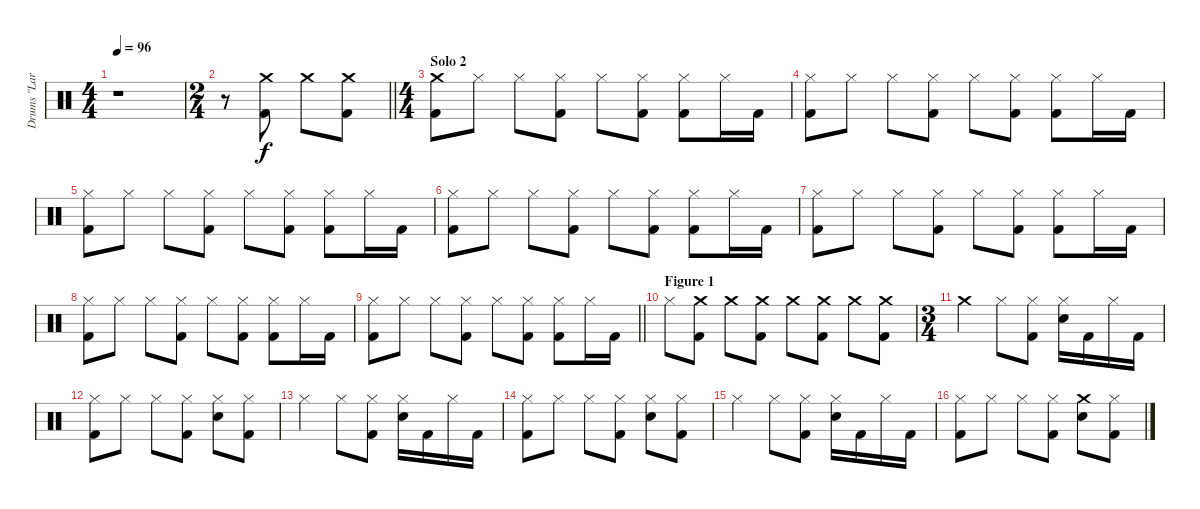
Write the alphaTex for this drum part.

\track ("Drums \"Lars Ulrich\"" "Drums \"Lar") {instrument percussion}
\staff {score}
\articulation defaults
\ts (4 4)
\tempo 96
\clef neutral
\ks c
r.1{dy f} |
\ts (2 4)
\barLineRight lightlight
r.8 ("Crash medium (hit)" "Kick (hit) 2").8 "Crash medium (hit)".8 ("Crash medium (hit)" "Kick (hit) 2").8 |
\ts (4 4)
\section ("" "Solo 2")
("Crash medium (hit)" "Kick (hit) 2").8 "Hi-Hat (closed)".8 "Hi-Hat (closed)".8 ("Hi-Hat (closed)" "Kick (hit) 2").8 "Hi-Hat (closed)".8 ("Hi-Hat (closed)" "Kick (hit) 2").8 ("Hi-Hat (closed)" "Kick (hit) 2").8 "Hi-Hat (closed)".16 "Kick (hit) 2".16 |
("Hi-Hat (closed)" "Kick (hit) 2").8 "Hi-Hat (closed)".8 "Hi-Hat (closed)".8 ("Hi-Hat (closed)" "Kick (hit) 2").8 "Hi-Hat (closed)".8 ("Hi-Hat (closed)" "Kick (hit) 2").8 ("Hi-Hat (closed)" "Kick (hit) 2").8 "Hi-Hat (closed)".16 "Kick (hit) 2".16 |
("Hi-Hat (closed)" "Kick (hit) 2").8 "Hi-Hat (closed)".8 "Hi-Hat (closed)".8 ("Hi-Hat (closed)" "Kick (hit) 2").8 "Hi-Hat (closed)".8 ("Hi-Hat (closed)" "Kick (hit) 2").8 ("Hi-Hat (closed)" "Kick (hit) 2").8 "Hi-Hat (closed)".16 "Kick (hit) 2".16 |
("Hi-Hat (closed)" "Kick (hit) 2").8 "Hi-Hat (closed)".8 "Hi-Hat (closed)".8 ("Hi-Hat (closed)" "Kick (hit) 2").8 "Hi-Hat (closed)".8 ("Hi-Hat (closed)" "Kick (hit) 2").8 ("Hi-Hat (closed)" "Kick (hit) 2").8 "Hi-Hat (closed)".16 "Kick (hit) 2".16 |
("Hi-Hat (closed)" "Kick (hit) 2").8 "Hi-Hat (closed)".8 "Hi-Hat (closed)".8 ("Hi-Hat (closed)" "Kick (hit) 2").8 "Hi-Hat (closed)".8 ("Hi-Hat (closed)" "Kick (hit) 2").8 ("Hi-Hat (closed)" "Kick (hit) 2").8 "Hi-Hat (closed)".16 "Kick (hit) 2".16 |
("Hi-Hat (closed)" "Kick (hit) 2").8 "Hi-Hat (closed)".8 "Hi-Hat (closed)".8 ("Hi-Hat (closed)" "Kick (hit) 2").8 "Hi-Hat (closed)".8 ("Hi-Hat (closed)" "Kick (hit) 2").8 ("Hi-Hat (closed)" "Kick (hit) 2").8 "Hi-Hat (closed)".16 "Kick (hit) 2".16 |
\barLineRight lightlight
("Hi-Hat (closed)" "Kick (hit) 2").8 "Hi-Hat (closed)".8 "Hi-Hat (closed)".8 ("Hi-Hat (closed)" "Kick (hit) 2").8 "Hi-Hat (closed)".8 ("Hi-Hat (closed)" "Kick (hit) 2").8 ("Hi-Hat (closed)" "Kick (hit) 2").8 "Hi-Hat (closed)".16 "Kick (hit) 2".16 |
\section ("" "Figure 1")
"Hi-Hat (closed)".8 ("Crash medium (hit)" "Kick (hit) 2").8 "Crash medium (hit)".8 ("Crash medium (hit)" "Kick (hit) 2").8 "Crash medium (hit)".8 ("Crash medium (hit)" "Kick (hit) 2").8 "Crash medium (hit)".8 ("Crash medium (hit)" "Kick (hit) 2").8 |
\ts (3 4)
"Crash medium (hit)".4 "Hi-Hat (closed)".8 ("Hi-Hat (closed)" "Kick (hit) 2").8 ("Hi-Hat (closed)" "Electric Snare (hit)").16 "Kick (hit) 2".16 "Hi-Hat (closed)".16 "Kick (hit) 2".16 |
("Hi-Hat (closed)" "Kick (hit) 2").8 "Hi-Hat (closed)".8 "Hi-Hat (closed)".8 ("Hi-Hat (closed)" "Kick (hit) 2").8 ("Hi-Hat (closed)" "Electric Snare (hit)").8 ("Hi-Hat (closed)" "Kick (hit) 2").8 |
"Hi-Hat (closed)".4 "Hi-Hat (closed)".8 ("Hi-Hat (closed)" "Kick (hit) 2").8 ("Hi-Hat (closed)" "Electric Snare (hit)").16 "Kick (hit) 2".16 "Hi-Hat (closed)".16 "Kick (hit) 2".16 |
("Hi-Hat (closed)" "Kick (hit) 2").8 "Hi-Hat (closed)".8 "Hi-Hat (closed)".8 ("Hi-Hat (closed)" "Kick (hit) 2").8 ("Hi-Hat (closed)" "Electric Snare (hit)").8 ("Hi-Hat (closed)" "Kick (hit) 2").8 |
"Hi-Hat (closed)".4 "Hi-Hat (closed)".8 ("Hi-Hat (closed)" "Kick (hit) 2").8 ("Hi-Hat (closed)" "Electric Snare (hit)").16 "Kick (hit) 2".16 "Hi-Hat (closed)".16 "Kick (hit) 2".16 |
("Hi-Hat (closed)" "Kick (hit) 2").8 "Hi-Hat (closed)".8 "Hi-Hat (closed)".8 ("Hi-Hat (closed)" "Kick (hit) 2").8 ("Crash medium (hit)" "Electric Snare (hit)").8 ("Hi-Hat (closed)" "Kick (hit) 2").8
